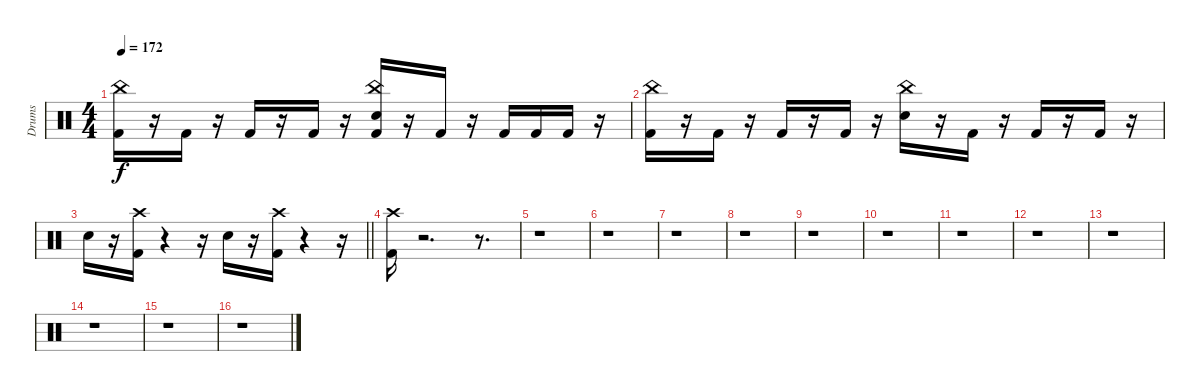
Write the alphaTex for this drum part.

\track ("Drums" "Drums") {instrument percussion}
\staff {score}
\articulation defaults
\ts (4 4)
\tempo 172
\clef neutral
\ks c
("Kick (hit) 2" "China (hit)").16{dy f} r.16 "Kick (hit) 2".16 r.16 "Kick (hit) 2".16 r.16 "Kick (hit) 2".16 r.16 ("Kick (hit) 2" "Snare (hit) 2" "China (hit)").16 r.16 "Kick (hit) 2".16 r.16 "Kick (hit) 2".16 "Kick (hit) 2".16 "Kick (hit) 2".16 r.16 |
("Kick (hit) 2" "China (hit)").16 r.16 "Kick (hit) 2".16 r.16 "Kick (hit) 2".16 r.16 "Kick (hit) 2".16 r.16 ("Snare (hit) 2" "China (hit)").16 r.16 "Kick (hit) 2".16 r.16 "Kick (hit) 2".16 r.16 "Kick (hit) 2".16 r.16 |
\barLineRight lightlight "Snare (hit) 2".16
r.16 ("Kick (hit) 2" "Crash high (hit)").16 r.4 r.16 "Snare (hit) 2".16 r.16 ("Kick (hit) 2" "Crash high (hit)").16 r.4 r.16 |
\section ("" " ")
("Kick (hit) 2" "Crash high (hit)").16 r.2{d} r.8{d} |
r.1 |
r.1 |
r.1 |
r.1 |
r.1 |
r.1 |
r.1 |
r.1 |
r.1 |
r.1 |
r.1 |
r.1
